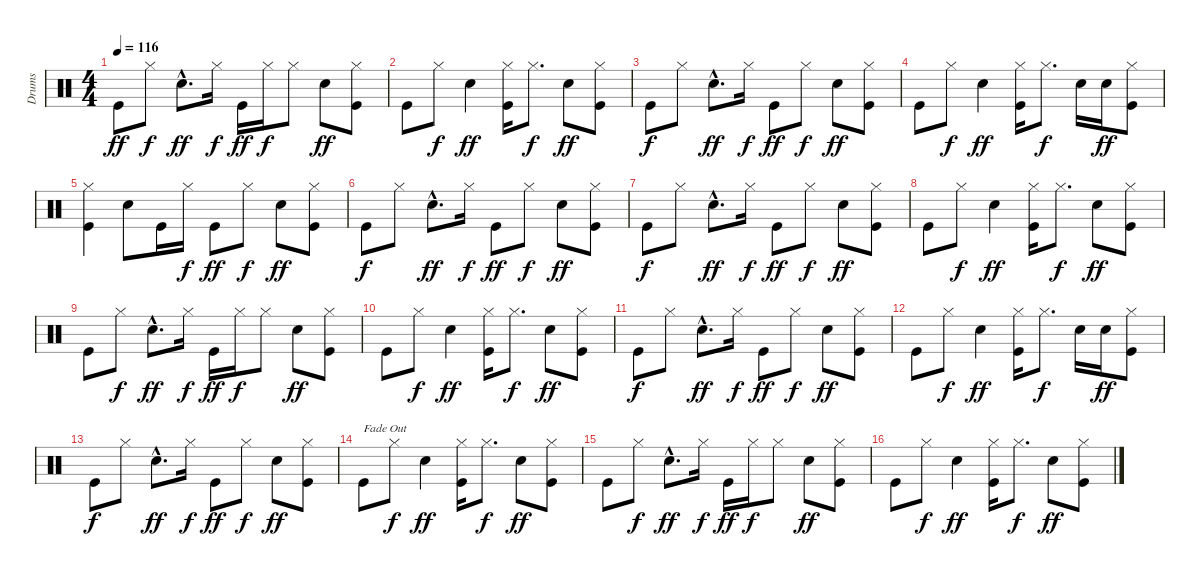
\track ("Drums" "Drums") {instrument percussion}
\staff {score}
\articulation defaults
\ts (4 4)
\tempo 116
\clef neutral
\ks c "Kick (hit)".8{dy ff} "Hi-Hat (closed)".8{dy f} "Snare (hit) 2"{hac}.8{d dy ff} "Hi-Hat (closed)".16{dy f} "Kick (hit)".16{dy ff} "Hi-Hat (closed)".16{dy f} "Hi-Hat (closed)".8 "Snare (hit) 2".8{dy ff}
("Hi-Hat (closed)" "Kick (hit)").8 |
"Kick (hit)".8 "Hi-Hat (closed)".8{dy f} "Snare (hit) 2".4{dy ff} ("Hi-Hat (closed)" "Kick (hit)").16 "Hi-Hat (closed)".8{d dy f} "Snare (hit) 2".8{dy ff} ("Hi-Hat (closed)" "Kick (hit)").8 |
"Kick (hit)".8{dy f} "Hi-Hat (closed)".8 "Snare (hit) 2"{hac}.8{d dy ff} "Hi-Hat (closed)".16{dy f} "Kick (hit)".8{dy ff} "Hi-Hat (closed)".8{dy f} "Snare (hit) 2".8{dy ff} ("Hi-Hat (closed)" "Kick (hit)").8 |
"Kick (hit)".8 "Hi-Hat (closed)".8{dy f} "Snare (hit) 2".4{dy ff} ("Hi-Hat (closed)" "Kick (hit)").16 "Hi-Hat (closed)".8{d dy f} "Snare (hit) 2".16 "Snare (hit) 2".16{dy ff} ("Hi-Hat (closed)" "Kick (hit)").8 |
("Hi-Hat (closed)" "Kick (hit)").4 "Snare (hit) 2".8 "Kick (hit)".16 "Hi-Hat (closed)".16{dy f} "Kick (hit)".8{dy ff} "Hi-Hat (closed)".8{dy f} "Snare (hit) 2".8{dy ff} ("Hi-Hat (closed)" "Kick (hit)").8 |
"Kick (hit)".8{dy f} "Hi-Hat (closed)".8 "Snare (hit) 2"{hac}.8{d dy ff} "Hi-Hat (closed)".16{dy f} "Kick (hit)".8{dy ff} "Hi-Hat (closed)".8{dy f} "Snare (hit) 2".8{dy ff} ("Hi-Hat (closed)" "Kick (hit)").8 |
"Kick (hit)".8{dy f} "Hi-Hat (closed)".8 "Snare (hit) 2"{hac}.8{d dy ff} "Hi-Hat (closed)".16{dy f} "Kick (hit)".8{dy ff} "Hi-Hat (closed)".8{dy f} "Snare (hit) 2".8{dy ff} ("Hi-Hat (closed)" "Kick (hit)").8 |
"Kick (hit)".8 "Hi-Hat (closed)".8{dy f} "Snare (hit) 2".4{dy ff} ("Hi-Hat (closed)" "Kick (hit)").16 "Hi-Hat (closed)".8{d dy f} "Snare (hit) 2".8{dy ff} ("Hi-Hat (closed)" "Kick (hit)").8 |
"Kick (hit)".8 "Hi-Hat (closed)".8{dy f} "Snare (hit) 2"{hac}.8{d dy ff} "Hi-Hat (closed)".16{dy f} "Kick (hit)".16{dy ff} "Hi-Hat (closed)".16{dy f} "Hi-Hat (closed)".8 "Snare (hit) 2".8{dy ff} ("Hi-Hat (closed)" "Kick (hit)").8 |
"Kick (hit)".8 "Hi-Hat (closed)".8{dy f} "Snare (hit) 2".4{dy ff} ("Hi-Hat (closed)" "Kick (hit)").16 "Hi-Hat (closed)".8{d dy f} "Snare (hit) 2".8{dy ff} ("Hi-Hat (closed)" "Kick (hit)").8 |
"Kick (hit)".8{dy f} "Hi-Hat (closed)".8 "Snare (hit) 2"{hac}.8{d dy ff} "Hi-Hat (closed)".16{dy f} "Kick (hit)".8{dy ff} "Hi-Hat (closed)".8{dy f} "Snare (hit) 2".8{dy ff} ("Hi-Hat (closed)" "Kick (hit)").8 |
"Kick (hit)".8 "Hi-Hat (closed)".8{dy f} "Snare (hit) 2".4{dy ff} ("Hi-Hat (closed)" "Kick (hit)").16 "Hi-Hat (closed)".8{d dy f} "Snare (hit) 2".16 "Snare (hit) 2".16{dy ff} ("Hi-Hat (closed)" "Kick (hit)").8 |
"Kick (hit)".8{dy f} "Hi-Hat (closed)".8 "Snare (hit) 2"{hac}.8{d dy ff} "Hi-Hat (closed)".16{dy f} "Kick (hit)".8{dy ff} "Hi-Hat (closed)".8{dy f} "Snare (hit) 2".8{dy ff} ("Hi-Hat (closed)" "Kick (hit)").8 |
"Kick (hit)".8{txt "Fade Out"} "Hi-Hat (closed)".8{dy f} "Snare (hit) 2".4{dy ff} ("Hi-Hat (closed)" "Kick (hit)").16 "Hi-Hat (closed)".8{d dy f} "Snare (hit) 2".8{dy ff} ("Hi-Hat (closed)" "Kick (hit)").8 |
"Kick (hit)".8 "Hi-Hat (closed)".8{dy f} "Snare (hit) 2"{hac}.8{d dy ff} "Hi-Hat (closed)".16{dy f} "Kick (hit)".16{dy ff} "Hi-Hat (closed)".16{dy f} "Hi-Hat (closed)".8 "Snare (hit) 2".8{dy ff} ("Hi-Hat (closed)" "Kick (hit)").8 |
"Kick (hit)".8 "Hi-Hat (closed)".8{dy f} "Snare (hit) 2".4{dy ff} ("Hi-Hat (closed)" "Kick (hit)").16 "Hi-Hat (closed)".8{d dy f} "Snare (hit) 2".8{dy ff} ("Hi-Hat (closed)" "Kick (hit)").8
